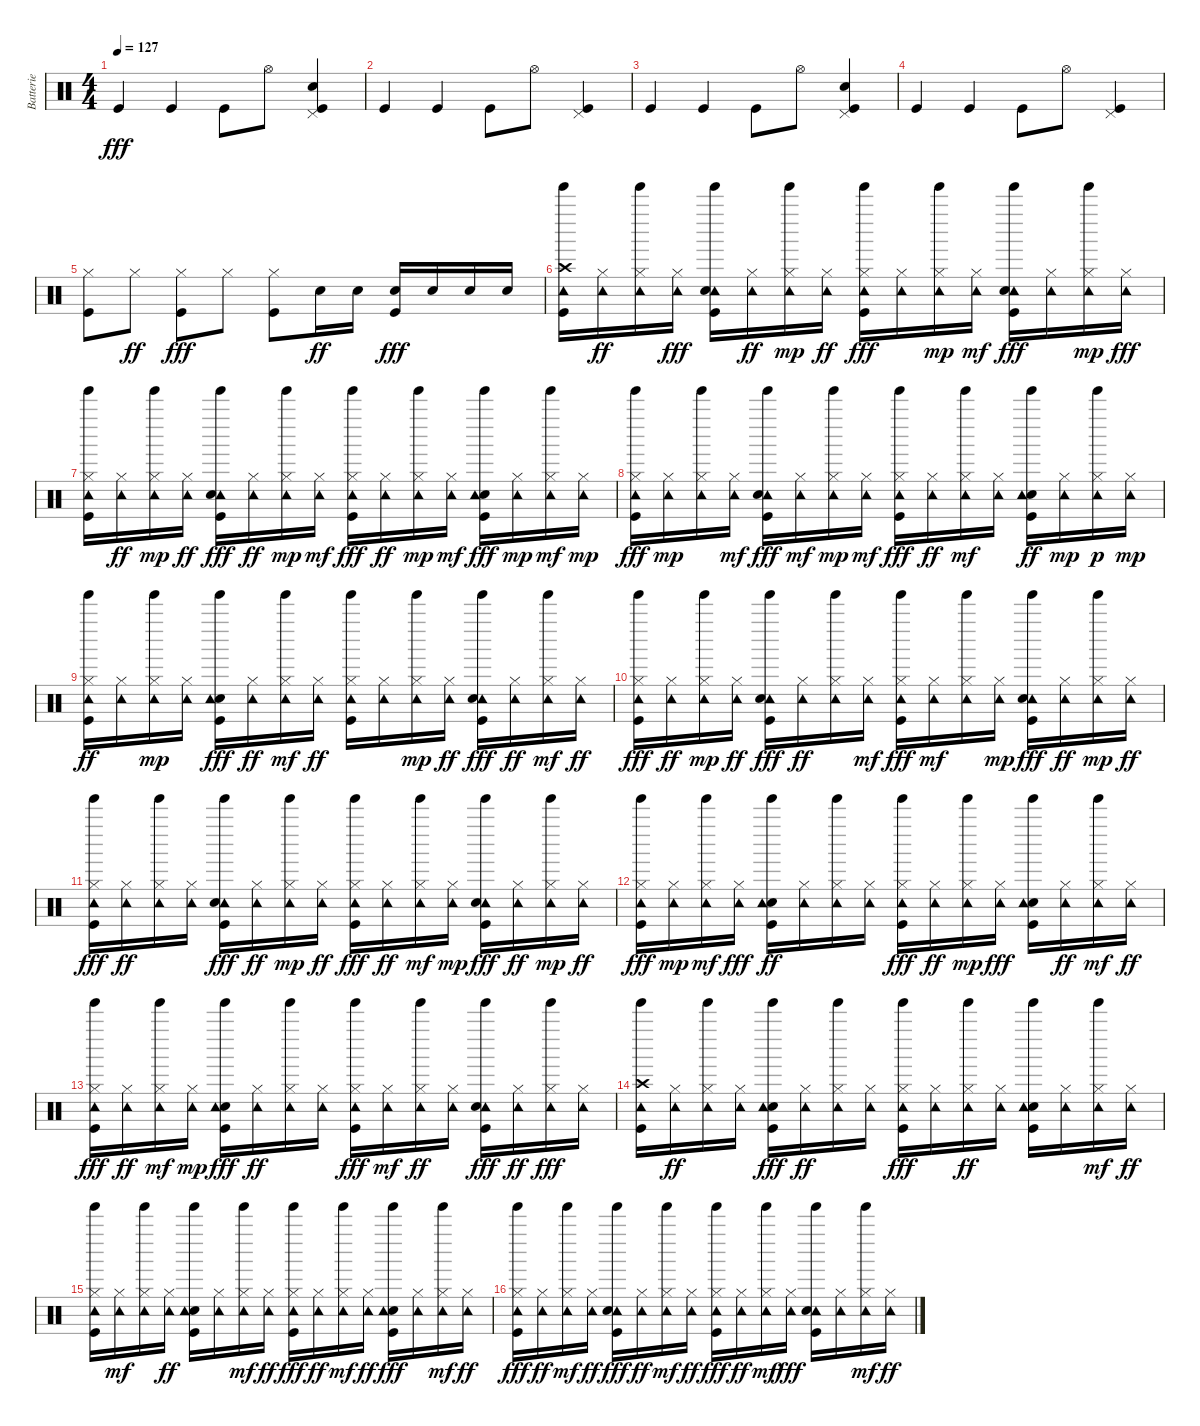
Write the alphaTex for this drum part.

\track ("Batterie" "Batterie") {instrument percussion}
\staff {score}
\articulation defaults
\ts (4 4)
\tempo 127
\clef neutral
\ks c "Kick (hit)".4{dy fff} "Kick (hit)".4 "Kick (hit)".8 "Hi-Hat (open)".8
("Snare (hit) 2" "Pedal Hi-Hat (hit)" "Kick (hit)").4 |
"Kick (hit)".4 "Kick (hit)".4 "Kick (hit)".8 "Hi-Hat (open)".8 ("Kick (hit)" "Pedal Hi-Hat (hit)").4 |
"Kick (hit)".4 "Kick (hit)".4 "Kick (hit)".8 "Hi-Hat (open)".8 ("Kick (hit)" "Snare (hit) 2" "Pedal Hi-Hat (hit)").4 |
"Kick (hit)".4 "Kick (hit)".4 "Kick (hit)".8 "Hi-Hat (open)".8 ("Kick (hit)" "Pedal Hi-Hat (hit)").4 |
("Kick (hit)" "Hi-Hat (closed)").8 "Hi-Hat (closed)".8{dy ff} ("Kick (hit)" "Hi-Hat (closed)").8{dy fff} "Hi-Hat (closed)".8 ("Hi-Hat (closed)" "Kick (hit)").8 "Snare (hit) 2".16{dy ff} "Snare (hit) 2".16 ("Kick (hit)" "Snare (hit) 2").16{dy fff} "Snare (hit) 2".16 "Snare (hit) 2".16 "Snare (hit) 2".16 |
("Crash high (hit)" "Tinkle Bell (hit)" "Tambourine (hit)" "Kick (hit)").16 ("Tambourine (hit)" "Hi-Hat (closed)").16{dy ff} ("Tinkle Bell (hit)" "Tambourine (hit)" "Hi-Hat (closed)").16 ("Tambourine (hit)" "Hi-Hat (closed)").16{dy fff} ("Tambourine (hit)" "Kick (hit)" "Snare (hit) 2" "Tinkle Bell (hit)").16 ("Tambourine (hit)" "Hi-Hat (closed)").16{dy ff} ("Hi-Hat (closed)" "Tambourine (hit)" "Tinkle Bell (hit)").16{dy mp} ("Tambourine (hit)" "Hi-Hat (closed)").16{dy ff} ("Kick (hit)" "Tambourine (hit)" "Tinkle Bell (hit)" "Hi-Hat (closed)").16{dy fff} ("Tambourine (hit)" "Hi-Hat (closed)").16 ("Hi-Hat (closed)" "Tambourine (hit)" "Tinkle Bell (hit)").16{dy mp} ("Hi-Hat (closed)" "Tambourine (hit)").16{dy mf} ("Tinkle Bell (hit)" "Tambourine (hit)" "Kick (hit)" "Snare (hit) 2").16{dy fff} ("Tambourine (hit)" "Hi-Hat (closed)").16 ("Hi-Hat (closed)" "Tambourine (hit)" "Tinkle Bell (hit)").16{dy mp} ("Tambourine (hit)" "Hi-Hat (closed)").16{dy fff} |
("Tambourine (hit)" "Kick (hit)" "Hi-Hat (closed)" "Tinkle Bell (hit)").16 ("Tambourine (hit)" "Hi-Hat (closed)").16{dy ff} ("Hi-Hat (closed)" "Tambourine (hit)" "Tinkle Bell (hit)").16{dy mp} ("Tambourine (hit)" "Hi-Hat (closed)").16{dy ff} ("Tambourine (hit)" "Tinkle Bell (hit)" "Kick (hit)" "Snare (hit) 2").16{dy fff} ("Tambourine (hit)" "Hi-Hat (closed)").16{dy ff} ("Tinkle Bell (hit)" "Hi-Hat (closed)" "Tambourine (hit)").16{dy mp} ("Hi-Hat (closed)" "Tambourine (hit)").16{dy mf} ("Tinkle Bell (hit)" "Tambourine (hit)" "Kick (hit)" "Hi-Hat (closed)").16{dy fff} ("Tambourine (hit)" "Hi-Hat (closed)").16{dy ff} ("Tinkle Bell (hit)" "Hi-Hat (closed)" "Tambourine (hit)").16{dy mp} ("Hi-Hat (closed)" "Tambourine (hit)").16{dy mf} ("Tinkle Bell (hit)" "Snare (hit) 2" "Kick (hit)" "Tambourine (hit)").16{dy fff} ("Hi-Hat (closed)" "Tambourine (hit)").16{dy mp} ("Hi-Hat (closed)" "Tinkle Bell (hit)" "Tambourine (hit)").16{dy mf} ("Hi-Hat (closed)" "Tambourine (hit)").16{dy mp} |
("Hi-Hat (closed)" "Tinkle Bell (hit)" "Tambourine (hit)" "Kick (hit)").16{dy fff} ("Tambourine (hit)" "Hi-Hat (closed)").16{dy mp} ("Hi-Hat (closed)" "Tinkle Bell (hit)" "Tambourine (hit)").16 ("Hi-Hat (closed)" "Tambourine (hit)").16{dy mf} ("Tinkle Bell (hit)" "Kick (hit)" "Tambourine (hit)" "Snare (hit) 2").16{dy fff} ("Hi-Hat (closed)" "Tambourine (hit)").16{dy mf} ("Tinkle Bell (hit)" "Tambourine (hit)" "Hi-Hat (closed)").16{dy mp} ("Hi-Hat (closed)" "Tambourine (hit)").16{dy mf} ("Tinkle Bell (hit)" "Kick (hit)" "Hi-Hat (closed)" "Tambourine (hit)").16{dy fff} ("Tambourine (hit)" "Hi-Hat (closed)").16{dy ff} ("Tinkle Bell (hit)" "Hi-Hat (closed)" "Tambourine (hit)").16{dy mf} ("Hi-Hat (closed)" "Tambourine (hit)").16 ("Tinkle Bell (hit)" "Kick (hit)" "Snare (hit) 2" "Tambourine (hit)").16{dy ff} ("Hi-Hat (closed)" "Tambourine (hit)").16{dy mp} ("Tinkle Bell (hit)" "Hi-Hat (closed)" "Tambourine (hit)").16{dy p} ("Hi-Hat (closed)" "Tambourine (hit)").16{dy mp} |
("Kick (hit)" "Hi-Hat (closed)" "Tambourine (hit)" "Tinkle Bell (hit)").16{dy ff} ("Tambourine (hit)" "Hi-Hat (closed)").16 ("Hi-Hat (closed)" "Tambourine (hit)" "Tinkle Bell (hit)").16{dy mp} ("Hi-Hat (closed)" "Tambourine (hit)").16 ("Tinkle Bell (hit)" "Snare (hit) 2" "Tambourine (hit)" "Kick (hit)").16{dy fff} ("Tambourine (hit)" "Hi-Hat (closed)").16{dy ff} ("Tinkle Bell (hit)" "Tambourine (hit)" "Hi-Hat (closed)").16{dy mf} ("Tambourine (hit)" "Hi-Hat (closed)").16{dy ff} ("Tinkle Bell (hit)" "Hi-Hat (closed)" "Kick (hit)" "Tambourine (hit)").16 ("Tambourine (hit)" "Hi-Hat (closed)").16 ("Tinkle Bell (hit)" "Hi-Hat (closed)" "Tambourine (hit)").16{dy mp} ("Tambourine (hit)" "Hi-Hat (closed)").16{dy ff} ("Tinkle Bell (hit)" "Tambourine (hit)" "Kick (hit)" "Snare (hit) 2").16{dy fff} ("Tambourine (hit)" "Hi-Hat (closed)").16{dy ff} ("Tinkle Bell (hit)" "Tambourine (hit)" "Hi-Hat (closed)").16{dy mf} ("Tambourine (hit)" "Hi-Hat (closed)").16{dy ff} |
("Tinkle Bell (hit)" "Hi-Hat (closed)" "Tambourine (hit)" "Kick (hit)").16{dy fff} ("Tambourine (hit)" "Hi-Hat (closed)").16{dy ff} ("Tambourine (hit)" "Tinkle Bell (hit)" "Hi-Hat (closed)").16{dy mp} ("Tambourine (hit)" "Hi-Hat (closed)").16{dy ff} ("Tinkle Bell (hit)" "Kick (hit)" "Tambourine (hit)" "Snare (hit) 2").16{dy fff} ("Tambourine (hit)" "Hi-Hat (closed)").16{dy ff} ("Tinkle Bell (hit)" "Tambourine (hit)" "Hi-Hat (closed)").16 ("Tambourine (hit)" "Hi-Hat (closed)").16{dy mf} ("Tinkle Bell (hit)" "Hi-Hat (closed)" "Tambourine (hit)" "Kick (hit)").16{dy fff} ("Tambourine (hit)" "Hi-Hat (closed)").16{dy mf} ("Tinkle Bell (hit)" "Hi-Hat (closed)" "Tambourine (hit)").16 ("Tambourine (hit)" "Hi-Hat (closed)").16{dy mp} ("Tinkle Bell (hit)" "Kick (hit)" "Tambourine (hit)" "Snare (hit) 2").16{dy fff} ("Tambourine (hit)" "Hi-Hat (closed)").16{dy ff} ("Tinkle Bell (hit)" "Tambourine (hit)" "Hi-Hat (closed)").16{dy mp} ("Tambourine (hit)" "Hi-Hat (closed)").16{dy ff} |
("Tinkle Bell (hit)" "Kick (hit)" "Tambourine (hit)" "Hi-Hat (closed)").16{dy fff} ("Tambourine (hit)" "Hi-Hat (closed)").16{dy ff} ("Tinkle Bell (hit)" "Tambourine (hit)" "Hi-Hat (closed)").16 ("Tambourine (hit)" "Hi-Hat (closed)").16 ("Tinkle Bell (hit)" "Kick (hit)" "Tambourine (hit)" "Snare (hit) 2").16{dy fff} ("Tambourine (hit)" "Hi-Hat (closed)").16{dy ff} ("Tinkle Bell (hit)" "Hi-Hat (closed)" "Tambourine (hit)").16{dy mp} ("Tambourine (hit)" "Hi-Hat (closed)").16{dy ff} ("Hi-Hat (closed)" "Tambourine (hit)" "Tinkle Bell (hit)" "Kick (hit)").16{dy fff} ("Tambourine (hit)" "Hi-Hat (closed)").16{dy ff} ("Hi-Hat (closed)" "Tambourine (hit)" "Tinkle Bell (hit)").16{dy mf} ("Hi-Hat (closed)" "Tambourine (hit)").16{dy mp} ("Tambourine (hit)" "Tinkle Bell (hit)" "Kick (hit)" "Snare (hit) 2").16{dy fff} ("Tambourine (hit)" "Hi-Hat (closed)").16{dy ff} ("Tinkle Bell (hit)" "Tambourine (hit)" "Hi-Hat (closed)").16{dy mp} ("Tambourine (hit)" "Hi-Hat (closed)").16{dy ff} |
("Tambourine (hit)" "Tinkle Bell (hit)" "Kick (hit)" "Hi-Hat (closed)").16{dy fff} ("Tambourine (hit)" "Hi-Hat (closed)").16{dy mp} ("Tinkle Bell (hit)" "Hi-Hat (closed)" "Tambourine (hit)").16{dy mf} ("Tambourine (hit)" "Hi-Hat (closed)").16{dy fff} ("Tinkle Bell (hit)" "Kick (hit)" "Snare (hit) 2" "Tambourine (hit)").16{dy ff} ("Tambourine (hit)" "Hi-Hat (closed)").16 ("Tinkle Bell (hit)" "Tambourine (hit)" "Hi-Hat (closed)").16 ("Tambourine (hit)" "Hi-Hat (closed)").16 ("Tinkle Bell (hit)" "Tambourine (hit)" "Kick (hit)" "Hi-Hat (closed)").16{dy fff} ("Tambourine (hit)" "Hi-Hat (closed)").16{dy ff} ("Tinkle Bell (hit)" "Tambourine (hit)" "Hi-Hat (closed)").16{dy mp} ("Tambourine (hit)" "Hi-Hat (closed)").16{dy fff} ("Snare (hit) 2" "Tinkle Bell (hit)" "Tambourine (hit)" "Kick (hit)").16 ("Tambourine (hit)" "Hi-Hat (closed)").16{dy ff} ("Tambourine (hit)" "Tinkle Bell (hit)" "Hi-Hat (closed)").16{dy mf} ("Tambourine (hit)" "Hi-Hat (closed)").16{dy ff} |
("Tinkle Bell (hit)" "Hi-Hat (closed)" "Tambourine (hit)" "Kick (hit)").16{dy fff} ("Tambourine (hit)" "Hi-Hat (closed)").16{dy ff} ("Tambourine (hit)" "Tinkle Bell (hit)" "Hi-Hat (closed)").16{dy mf} ("Hi-Hat (closed)" "Tambourine (hit)").16{dy mp} ("Snare (hit) 2" "Tambourine (hit)" "Tinkle Bell (hit)" "Kick (hit)").16{dy fff} ("Tambourine (hit)" "Hi-Hat (closed)").16{dy ff} ("Tinkle Bell (hit)" "Tambourine (hit)" "Hi-Hat (closed)").16 ("Tambourine (hit)" "Hi-Hat (closed)").16 ("Tinkle Bell (hit)" "Hi-Hat (closed)" "Tambourine (hit)" "Kick (hit)").16{dy fff} ("Tambourine (hit)" "Hi-Hat (closed)").16{dy mf} ("Tambourine (hit)" "Tinkle Bell (hit)" "Hi-Hat (closed)").16{dy ff} ("Tambourine (hit)" "Hi-Hat (closed)").16 ("Tinkle Bell (hit)" "Tambourine (hit)" "Kick (hit)" "Snare (hit) 2").16{dy fff} ("Tambourine (hit)" "Hi-Hat (closed)").16{dy ff} ("Tinkle Bell (hit)" "Tambourine (hit)" "Hi-Hat (closed)").16{dy fff} ("Tambourine (hit)" "Hi-Hat (closed)").16 |
("Crash high (hit)" "Tinkle Bell (hit)" "Tambourine (hit)" "Kick (hit)").16 ("Tambourine (hit)" "Hi-Hat (closed)").16{dy ff} ("Tambourine (hit)" "Tinkle Bell (hit)" "Hi-Hat (closed)").16 ("Tambourine (hit)" "Hi-Hat (closed)").16 ("Tinkle Bell (hit)" "Snare (hit) 2" "Tambourine (hit)" "Kick (hit)").16{dy fff} ("Tambourine (hit)" "Hi-Hat (closed)").16{dy ff} ("Tambourine (hit)" "Tinkle Bell (hit)" "Hi-Hat (closed)").16 ("Tambourine (hit)" "Hi-Hat (closed)").16 ("Tambourine (hit)" "Tinkle Bell (hit)" "Kick (hit)" "Hi-Hat (closed)").16{dy fff} ("Tambourine (hit)" "Hi-Hat (closed)").16 ("Tinkle Bell (hit)" "Tambourine (hit)" "Hi-Hat (closed)").16{dy ff} ("Tambourine (hit)" "Hi-Hat (closed)").16 ("Tinkle Bell (hit)" "Kick (hit)" "Snare (hit) 2" "Tambourine (hit)").16 ("Tambourine (hit)" "Hi-Hat (closed)").16 ("Tinkle Bell (hit)" "Tambourine (hit)" "Hi-Hat (closed)").16{dy mf} ("Tambourine (hit)" "Hi-Hat (closed)").16{dy ff} |
("Tinkle Bell (hit)" "Kick (hit)" "Hi-Hat (closed)" "Tambourine (hit)").16 ("Tambourine (hit)" "Hi-Hat (closed)").16{dy mf} ("Hi-Hat (closed)" "Tinkle Bell (hit)" "Tambourine (hit)").16 ("Tambourine (hit)" "Hi-Hat (closed)").16{dy ff} ("Tinkle Bell (hit)" "Kick (hit)" "Snare (hit) 2" "Tambourine (hit)").16 ("Tambourine (hit)" "Hi-Hat (closed)").16 ("Tinkle Bell (hit)" "Tambourine (hit)" "Hi-Hat (closed)").16{dy mf} ("Tambourine (hit)" "Hi-Hat (closed)").16{dy ff} ("Tinkle Bell (hit)" "Hi-Hat (closed)" "Kick (hit)" "Tambourine (hit)").16{dy fff} ("Tambourine (hit)" "Hi-Hat (closed)").16{dy ff} ("Hi-Hat (closed)" "Tinkle Bell (hit)" "Tambourine (hit)").16{dy mf} ("Tambourine (hit)" "Hi-Hat (closed)").16{dy ff} ("Tinkle Bell (hit)" "Snare (hit) 2" "Tambourine (hit)" "Kick (hit)").16{dy fff} ("Tambourine (hit)" "Hi-Hat (closed)").16 ("Tinkle Bell (hit)" "Hi-Hat (closed)" "Tambourine (hit)").16{dy mf} ("Tambourine (hit)" "Hi-Hat (closed)").16{dy ff} |
("Hi-Hat (closed)" "Tambourine (hit)" "Tinkle Bell (hit)" "Kick (hit)").16{dy fff} ("Tambourine (hit)" "Hi-Hat (closed)").16{dy ff} ("Hi-Hat (closed)" "Tambourine (hit)" "Tinkle Bell (hit)").16{dy mf} ("Tambourine (hit)" "Hi-Hat (closed)").16{dy ff} ("Tambourine (hit)" "Kick (hit)" "Snare (hit) 2" "Tinkle Bell (hit)").16{dy fff} ("Tambourine (hit)" "Hi-Hat (closed)").16{dy ff} ("Tinkle Bell (hit)" "Tambourine (hit)" "Hi-Hat (closed)").16{dy mf} ("Tambourine (hit)" "Hi-Hat (closed)").16{dy ff} ("Tinkle Bell (hit)" "Hi-Hat (closed)" "Tambourine (hit)" "Kick (hit)").16{dy fff} ("Tambourine (hit)" "Hi-Hat (closed)").16{dy ff} ("Hi-Hat (closed)" "Tinkle Bell (hit)" "Tambourine (hit)").16{dy mf} ("Tambourine (hit)" "Hi-Hat (closed)").16{dy fff} ("Tinkle Bell (hit)" "Tambourine (hit)" "Kick (hit)" "Snare (hit) 2").16 ("Tambourine (hit)" "Hi-Hat (closed)").16 ("Tambourine (hit)" "Tinkle Bell (hit)" "Hi-Hat (closed)").16{dy mf} ("Tambourine (hit)" "Hi-Hat (closed)").16{dy ff}
